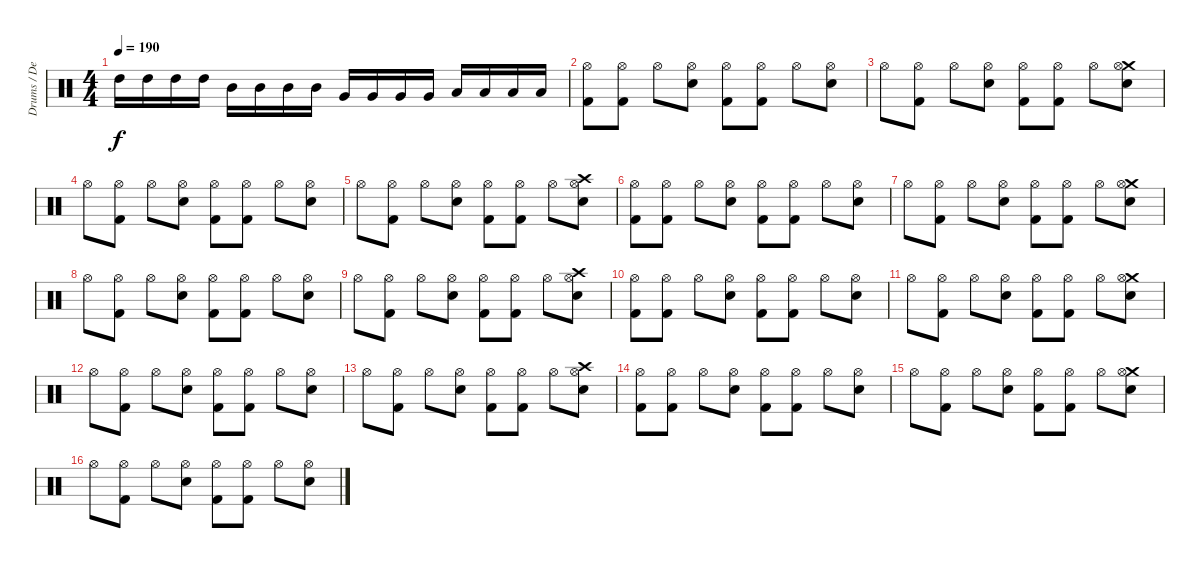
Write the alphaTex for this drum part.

\track ("Drums / Dennis" "Drums / De") {instrument percussion}
\staff {score}
\articulation defaults
\ts (4 4)
\tempo 190
\clef neutral
\ks c "High Tom (hit)".16{dy f} "High Tom (hit)".16 "High Tom (hit)".16 "High Tom (hit)".16 "Mid Tom (hit)".16 "Mid Tom (hit)".16 "Mid Tom (hit)".16 "Mid Tom (hit)".16 "Very Low Tom (hit)".16 "Very Low Tom (hit)".16 "Very Low Tom (hit)".16 "Very Low Tom (hit)".16 "Low Floor Tom (hit)".16 "Low Floor Tom (hit)".16 "Low Floor Tom (hit)".16 "Low Floor Tom (hit)".16
|
("Kick (hit) 2" "Hi-Hat (open)").8 ("Kick (hit) 2" "Hi-Hat (open)").8 "Hi-Hat (open)".8 ("Snare (hit) 2" "Hi-Hat (open)").8 ("Kick (hit) 2" "Hi-Hat (open)").8 ("Kick (hit) 2" "Hi-Hat (open)").8 "Hi-Hat (open)".8 ("Snare (hit) 2" "Hi-Hat (open)").8 |
"Hi-Hat (open)".8 ("Kick (hit) 2" "Hi-Hat (open)").8 "Hi-Hat (open)".8 ("Snare (hit) 2" "Hi-Hat (open)").8 ("Kick (hit) 2" "Hi-Hat (open)").8 ("Kick (hit) 2" "Hi-Hat (open)").8 "Hi-Hat (open)".8 ("Crash medium (hit)" "Snare (hit) 2" "Hi-Hat (open)").8 |
"Hi-Hat (open)".8 ("Kick (hit) 2" "Hi-Hat (open)").8 "Hi-Hat (open)".8 ("Snare (hit) 2" "Hi-Hat (open)").8 ("Kick (hit) 2" "Hi-Hat (open)").8 ("Kick (hit) 2" "Hi-Hat (open)").8 "Hi-Hat (open)".8 ("Snare (hit) 2" "Hi-Hat (open)").8 |
"Hi-Hat (open)".8 ("Kick (hit) 2" "Hi-Hat (open)").8 "Hi-Hat (open)".8 ("Snare (hit) 2" "Hi-Hat (open)").8 ("Kick (hit) 2" "Hi-Hat (open)").8 ("Kick (hit) 2" "Hi-Hat (open)").8 "Hi-Hat (open)".8 ("Crash high (hit)" "Snare (hit) 2" "Hi-Hat (open)").8 |
("Kick (hit) 2" "Hi-Hat (open)").8 ("Kick (hit) 2" "Hi-Hat (open)").8 "Hi-Hat (open)".8 ("Snare (hit) 2" "Hi-Hat (open)").8 ("Kick (hit) 2" "Hi-Hat (open)").8 ("Kick (hit) 2" "Hi-Hat (open)").8 "Hi-Hat (open)".8 ("Snare (hit) 2" "Hi-Hat (open)").8 |
"Hi-Hat (open)".8 ("Kick (hit) 2" "Hi-Hat (open)").8 "Hi-Hat (open)".8 ("Snare (hit) 2" "Hi-Hat (open)").8 ("Kick (hit) 2" "Hi-Hat (open)").8 ("Kick (hit) 2" "Hi-Hat (open)").8 "Hi-Hat (open)".8 ("Crash medium (hit)" "Snare (hit) 2" "Hi-Hat (open)").8 |
"Hi-Hat (open)".8 ("Kick (hit) 2" "Hi-Hat (open)").8 "Hi-Hat (open)".8 ("Snare (hit) 2" "Hi-Hat (open)").8 ("Kick (hit) 2" "Hi-Hat (open)").8 ("Kick (hit) 2" "Hi-Hat (open)").8 "Hi-Hat (open)".8 ("Snare (hit) 2" "Hi-Hat (open)").8 |
"Hi-Hat (open)".8 ("Kick (hit) 2" "Hi-Hat (open)").8 "Hi-Hat (open)".8 ("Snare (hit) 2" "Hi-Hat (open)").8 ("Kick (hit) 2" "Hi-Hat (open)").8 ("Kick (hit) 2" "Hi-Hat (open)").8 "Hi-Hat (open)".8 ("Crash high (hit)" "Snare (hit) 2" "Hi-Hat (open)").8 |
("Kick (hit) 2" "Hi-Hat (open)").8 ("Kick (hit) 2" "Hi-Hat (open)").8 "Hi-Hat (open)".8 ("Snare (hit) 2" "Hi-Hat (open)").8 ("Kick (hit) 2" "Hi-Hat (open)").8 ("Kick (hit) 2" "Hi-Hat (open)").8 "Hi-Hat (open)".8 ("Snare (hit) 2" "Hi-Hat (open)").8 |
"Hi-Hat (open)".8 ("Kick (hit) 2" "Hi-Hat (open)").8 "Hi-Hat (open)".8 ("Snare (hit) 2" "Hi-Hat (open)").8 ("Kick (hit) 2" "Hi-Hat (open)").8 ("Kick (hit) 2" "Hi-Hat (open)").8 "Hi-Hat (open)".8 ("Crash medium (hit)" "Snare (hit) 2" "Hi-Hat (open)").8 |
"Hi-Hat (open)".8 ("Kick (hit) 2" "Hi-Hat (open)").8 "Hi-Hat (open)".8 ("Snare (hit) 2" "Hi-Hat (open)").8 ("Kick (hit) 2" "Hi-Hat (open)").8 ("Kick (hit) 2" "Hi-Hat (open)").8 "Hi-Hat (open)".8 ("Snare (hit) 2" "Hi-Hat (open)").8 |
"Hi-Hat (open)".8 ("Kick (hit) 2" "Hi-Hat (open)").8 "Hi-Hat (open)".8 ("Snare (hit) 2" "Hi-Hat (open)").8 ("Kick (hit) 2" "Hi-Hat (open)").8 ("Kick (hit) 2" "Hi-Hat (open)").8 "Hi-Hat (open)".8 ("Crash high (hit)" "Snare (hit) 2" "Hi-Hat (open)").8 |
("Kick (hit) 2" "Hi-Hat (open)").8 ("Kick (hit) 2" "Hi-Hat (open)").8 "Hi-Hat (open)".8 ("Snare (hit) 2" "Hi-Hat (open)").8 ("Kick (hit) 2" "Hi-Hat (open)").8 ("Kick (hit) 2" "Hi-Hat (open)").8 "Hi-Hat (open)".8 ("Snare (hit) 2" "Hi-Hat (open)").8 |
"Hi-Hat (open)".8 ("Kick (hit) 2" "Hi-Hat (open)").8 "Hi-Hat (open)".8 ("Snare (hit) 2" "Hi-Hat (open)").8 ("Kick (hit) 2" "Hi-Hat (open)").8 ("Kick (hit) 2" "Hi-Hat (open)").8 "Hi-Hat (open)".8 ("Crash medium (hit)" "Snare (hit) 2" "Hi-Hat (open)").8 |
"Hi-Hat (open)".8 ("Kick (hit) 2" "Hi-Hat (open)").8 "Hi-Hat (open)".8 ("Snare (hit) 2" "Hi-Hat (open)").8 ("Kick (hit) 2" "Hi-Hat (open)").8 ("Kick (hit) 2" "Hi-Hat (open)").8 "Hi-Hat (open)".8 ("Snare (hit) 2" "Hi-Hat (open)").8
